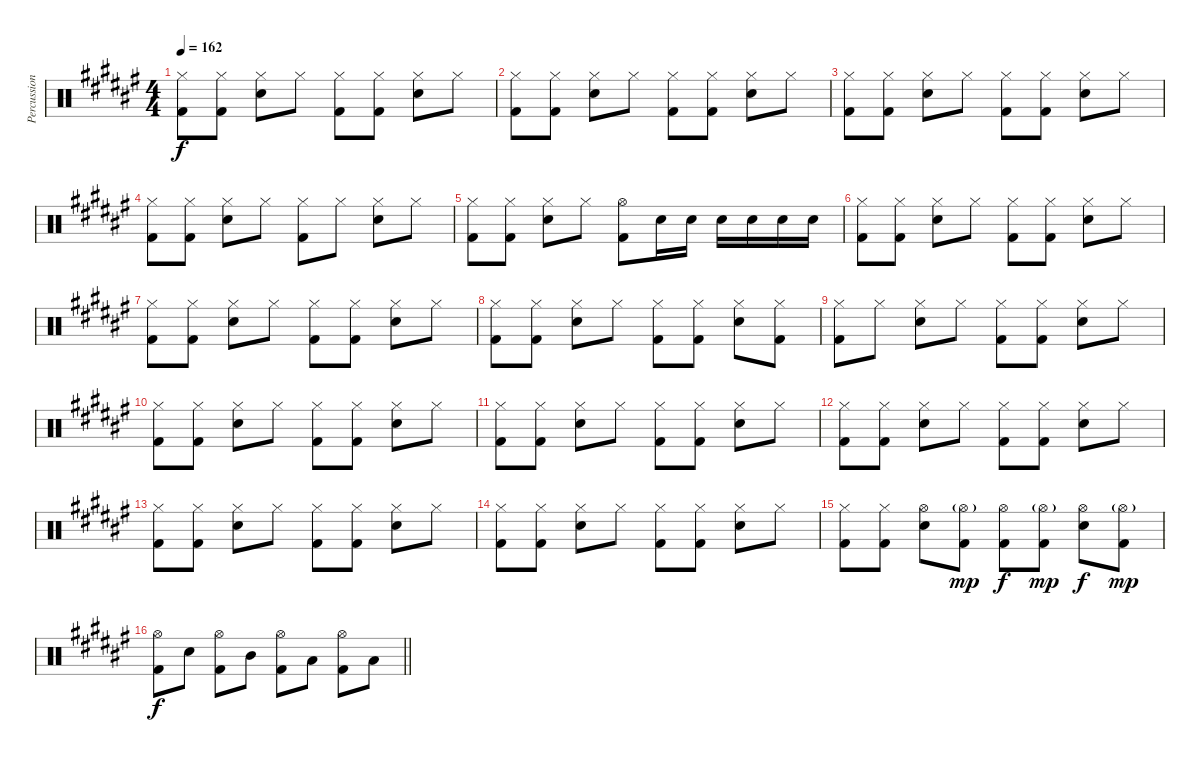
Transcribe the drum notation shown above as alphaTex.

\track ("Percussion" "Percussion") {instrument percussion}
\staff {score}
\articulation defaults
\ts (4 4)
\tempo 162
\clef neutral
\ks f#
("Hi-Hat (closed)" "Kick (hit) 2").8{dy f} ("Hi-Hat (closed)" "Kick (hit) 2").8 ("Hi-Hat (closed)" "Electric Snare (hit)").8 "Hi-Hat (closed)".8 ("Hi-Hat (closed)" "Kick (hit) 2").8 ("Hi-Hat (closed)" "Kick (hit) 2").8 ("Hi-Hat (closed)" "Electric Snare (hit)").8 "Hi-Hat (closed)".8 |
("Hi-Hat (closed)" "Kick (hit) 2").8 ("Hi-Hat (closed)" "Kick (hit) 2").8 ("Hi-Hat (closed)" "Electric Snare (hit)").8 "Hi-Hat (closed)".8 ("Hi-Hat (closed)" "Kick (hit) 2").8 ("Hi-Hat (closed)" "Kick (hit) 2").8 ("Hi-Hat (closed)" "Electric Snare (hit)").8 "Hi-Hat (closed)".8 |
("Hi-Hat (closed)" "Kick (hit) 2").8 ("Hi-Hat (closed)" "Kick (hit) 2").8 ("Hi-Hat (closed)" "Electric Snare (hit)").8 "Hi-Hat (closed)".8 ("Hi-Hat (closed)" "Kick (hit) 2").8 ("Hi-Hat (closed)" "Kick (hit) 2").8 ("Hi-Hat (closed)" "Electric Snare (hit)").8 "Hi-Hat (closed)".8 |
("Hi-Hat (closed)" "Kick (hit) 2").8 ("Hi-Hat (closed)" "Kick (hit) 2").8 ("Hi-Hat (closed)" "Electric Snare (hit)").8 "Hi-Hat (closed)".8 ("Hi-Hat (closed)" "Kick (hit) 2").8 "Hi-Hat (closed)".8 ("Hi-Hat (closed)" "Electric Snare (hit)").8 "Hi-Hat (closed)".8 |
("Hi-Hat (closed)" "Kick (hit) 2").8 ("Hi-Hat (closed)" "Kick (hit) 2").8 ("Hi-Hat (closed)" "Electric Snare (hit)").8 "Hi-Hat (closed)".8 ("Hi-Hat (open)" "Kick (hit) 2").8 "Electric Snare (hit)".16 "Electric Snare (hit)".16 "Electric Snare (hit)".16 "Electric Snare (hit)".16 "Electric Snare (hit)".16 "Electric Snare (hit)".16 |
("Hi-Hat (closed)" "Kick (hit) 2").8 ("Hi-Hat (closed)" "Kick (hit) 2").8 ("Hi-Hat (closed)" "Electric Snare (hit)").8 "Hi-Hat (closed)".8 ("Hi-Hat (closed)" "Kick (hit) 2").8 ("Hi-Hat (closed)" "Kick (hit) 2").8 ("Hi-Hat (closed)" "Electric Snare (hit)").8 "Hi-Hat (closed)".8 |
("Hi-Hat (closed)" "Kick (hit) 2").8 ("Hi-Hat (closed)" "Kick (hit) 2").8 ("Hi-Hat (closed)" "Electric Snare (hit)").8 "Hi-Hat (closed)".8 ("Hi-Hat (closed)" "Kick (hit) 2").8 ("Hi-Hat (closed)" "Kick (hit) 2").8 ("Hi-Hat (closed)" "Electric Snare (hit)").8 "Hi-Hat (closed)".8 |
("Hi-Hat (closed)" "Kick (hit) 2").8 ("Hi-Hat (closed)" "Kick (hit) 2").8 ("Hi-Hat (closed)" "Electric Snare (hit)").8 "Hi-Hat (closed)".8 ("Hi-Hat (closed)" "Kick (hit) 2").8 ("Hi-Hat (closed)" "Kick (hit) 2").8 ("Hi-Hat (closed)" "Electric Snare (hit)").8 ("Hi-Hat (closed)" "Kick (hit) 2").8 |
("Hi-Hat (closed)" "Kick (hit) 2").8 "Hi-Hat (closed)".8 ("Hi-Hat (closed)" "Electric Snare (hit)").8 "Hi-Hat (closed)".8 ("Hi-Hat (closed)" "Kick (hit) 2").8 ("Hi-Hat (closed)" "Kick (hit) 2").8 ("Hi-Hat (closed)" "Electric Snare (hit)").8 "Hi-Hat (closed)".8 |
("Hi-Hat (closed)" "Kick (hit) 2").8 ("Hi-Hat (closed)" "Kick (hit) 2").8 ("Hi-Hat (closed)" "Electric Snare (hit)").8 "Hi-Hat (closed)".8 ("Hi-Hat (closed)" "Kick (hit) 2").8 ("Hi-Hat (closed)" "Kick (hit) 2").8 ("Hi-Hat (closed)" "Electric Snare (hit)").8 "Hi-Hat (closed)".8 |
("Hi-Hat (closed)" "Kick (hit) 2").8 ("Hi-Hat (closed)" "Kick (hit) 2").8 ("Hi-Hat (closed)" "Electric Snare (hit)").8 "Hi-Hat (closed)".8 ("Hi-Hat (closed)" "Kick (hit) 2").8 ("Hi-Hat (closed)" "Kick (hit) 2").8 ("Hi-Hat (closed)" "Electric Snare (hit)").8 "Hi-Hat (closed)".8 |
("Hi-Hat (closed)" "Kick (hit) 2").8 ("Hi-Hat (closed)" "Kick (hit) 2").8 ("Hi-Hat (closed)" "Electric Snare (hit)").8 "Hi-Hat (closed)".8 ("Hi-Hat (closed)" "Kick (hit) 2").8 ("Hi-Hat (closed)" "Kick (hit) 2").8 ("Hi-Hat (closed)" "Electric Snare (hit)").8 "Hi-Hat (closed)".8 |
("Hi-Hat (closed)" "Kick (hit) 2").8 ("Hi-Hat (closed)" "Kick (hit) 2").8 ("Hi-Hat (closed)" "Electric Snare (hit)").8 "Hi-Hat (closed)".8 ("Hi-Hat (closed)" "Kick (hit) 2").8 ("Hi-Hat (closed)" "Kick (hit) 2").8 ("Hi-Hat (closed)" "Electric Snare (hit)").8 "Hi-Hat (closed)".8 |
("Hi-Hat (closed)" "Kick (hit) 2").8 ("Hi-Hat (closed)" "Kick (hit) 2").8 ("Hi-Hat (closed)" "Electric Snare (hit)").8 "Hi-Hat (closed)".8 ("Hi-Hat (closed)" "Kick (hit) 2").8 ("Hi-Hat (closed)" "Kick (hit) 2").8 ("Hi-Hat (closed)" "Electric Snare (hit)").8 "Hi-Hat (closed)".8 |
("Hi-Hat (closed)" "Kick (hit) 2").8 ("Hi-Hat (closed)" "Kick (hit) 2").8 ("Hi-Hat (open)" "Electric Snare (hit)").8 ("Hi-Hat (open)"{g} "Kick (hit) 2").8{dy mp} ("Hi-Hat (open)" "Kick (hit) 2").8{dy f} ("Hi-Hat (open)"{g} "Kick (hit) 2").8{dy mp} ("Hi-Hat (open)" "Electric Snare (hit)").8{dy f} ("Hi-Hat (open)"{g} "Kick (hit) 2").8{dy mp} |
\barLineRight lightlight
("Hi-Hat (open)" "Kick (hit) 2").8{dy f} "Electric Snare (hit)".8 ("Hi-Hat (open)" "Kick (hit) 2").8 "Mid Tom (hit)".8 ("Hi-Hat (open)" "Kick (hit) 2").8 "Low Tom (hit)".8 ("Hi-Hat (open)" "Kick (hit) 2").8 "Low Floor Tom (hit)".8
